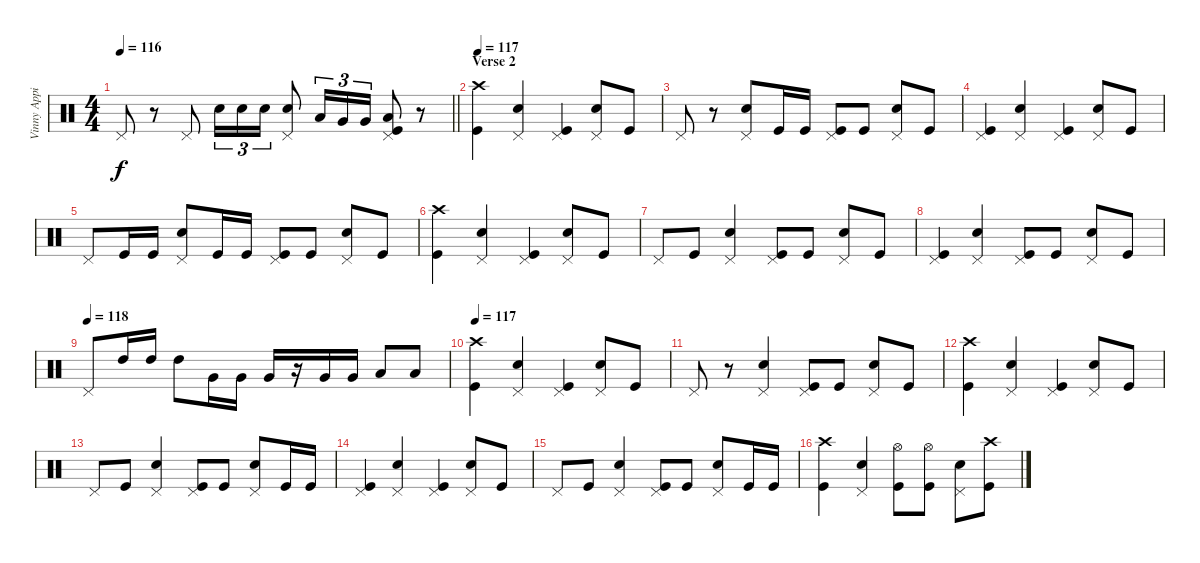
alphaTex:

\track ("Vinny Appice" "Vinny Appi") {instrument percussion}
\staff {score}
\articulation defaults
\ts (4 4)
\tempo 116
\clef neutral
\barLineRight lightlight
\ks c "Pedal Hi-Hat (hit)".8{dy f}
r.8 "Pedal Hi-Hat (hit)".8 "Snare (hit) 2".16{tu (3 2)} "Snare (hit) 2".16{tu (3 2)} "Snare (hit) 2".16{tu (3 2)} ("Pedal Hi-Hat (hit)" "Snare (hit) 2").8 "Low Tom (hit)".16{tu (3 2)} "Very Low Tom (hit)".16{tu (3 2)} "Very Low Tom (hit)".16{tu (3 2)} ("Pedal Hi-Hat (hit)" "Low Floor Tom (hit)" "Kick (hit)").8 r.8 |
\section ("" "Verse 2")
\tempo 117
("Kick (hit)" "Crash high (hit)").4 ("Pedal Hi-Hat (hit)" "Snare (hit) 2").4 ("Pedal Hi-Hat (hit)" "Kick (hit)").4 ("Pedal Hi-Hat (hit)" "Snare (hit) 2").8 "Kick (hit)".8 |
"Pedal Hi-Hat (hit)".8 r.8 ("Pedal Hi-Hat (hit)" "Snare (hit) 2").8 "Kick (hit)".16 "Kick (hit)".16 ("Pedal Hi-Hat (hit)" "Kick (hit)").8 "Kick (hit)".8 ("Pedal Hi-Hat (hit)" "Snare (hit) 2").8 "Kick (hit)".8 |
("Pedal Hi-Hat (hit)" "Kick (hit)").4 ("Pedal Hi-Hat (hit)" "Snare (hit) 2").4 ("Pedal Hi-Hat (hit)" "Kick (hit)").4 ("Pedal Hi-Hat (hit)" "Snare (hit) 2").8 "Kick (hit)".8 |
"Pedal Hi-Hat (hit)".8 "Kick (hit)".16 "Kick (hit)".16 ("Pedal Hi-Hat (hit)" "Snare (hit) 2").8 "Kick (hit)".16 "Kick (hit)".16 ("Pedal Hi-Hat (hit)" "Kick (hit)").8 "Kick (hit)".8 ("Pedal Hi-Hat (hit)" "Snare (hit) 2").8 "Kick (hit)".8 |
("Kick (hit)" "Crash high (hit)").4 ("Pedal Hi-Hat (hit)" "Snare (hit) 2").4 ("Pedal Hi-Hat (hit)" "Kick (hit)").4 ("Pedal Hi-Hat (hit)" "Snare (hit) 2").8 "Kick (hit)".8 |
"Pedal Hi-Hat (hit)".8 "Kick (hit)".8 ("Pedal Hi-Hat (hit)" "Snare (hit) 2").4 ("Pedal Hi-Hat (hit)" "Kick (hit)").8 "Kick (hit)".8 ("Pedal Hi-Hat (hit)" "Snare (hit) 2").8 "Kick (hit)".8 |
("Pedal Hi-Hat (hit)" "Kick (hit)").4 ("Pedal Hi-Hat (hit)" "Snare (hit) 2").4 ("Pedal Hi-Hat (hit)" "Kick (hit)").8 "Kick (hit)".8 ("Pedal Hi-Hat (hit)" "Snare (hit) 2").8 "Kick (hit)".8 |
\tempo (118)
"Pedal Hi-Hat (hit)".8 "High Tom (hit)".16 "High Tom (hit)".16 "High Tom (hit)".8 "Very Low Tom (hit)".16 "Very Low Tom (hit)".16 "Very Low Tom (hit)".16 r.16 "Very Low Tom (hit)".16 "Very Low Tom (hit)".16 "Low Tom (hit)".8 "Low Floor Tom (hit)".8 |
\tempo 117
("Kick (hit)" "Crash high (hit)").4 ("Pedal Hi-Hat (hit)" "Snare (hit) 2").4 ("Pedal Hi-Hat (hit)" "Kick (hit)").4 ("Pedal Hi-Hat (hit)" "Snare (hit) 2").8 "Kick (hit)".8 |
"Pedal Hi-Hat (hit)".8 r.8 ("Pedal Hi-Hat (hit)" "Snare (hit) 2").4 ("Pedal Hi-Hat (hit)" "Kick (hit)").8 "Kick (hit)".8 ("Pedal Hi-Hat (hit)" "Snare (hit) 2").8 "Kick (hit)".8 |
("Kick (hit)" "Crash high (hit)").4 ("Pedal Hi-Hat (hit)" "Snare (hit) 2").4 ("Pedal Hi-Hat (hit)" "Kick (hit)").4 ("Pedal Hi-Hat (hit)" "Snare (hit) 2").8 "Kick (hit)".8 |
"Pedal Hi-Hat (hit)".8 "Kick (hit)".8 ("Pedal Hi-Hat (hit)" "Snare (hit) 2").4 ("Pedal Hi-Hat (hit)" "Kick (hit)").8 "Kick (hit)".8 ("Pedal Hi-Hat (hit)" "Snare (hit) 2").8 "Kick (hit)".16 "Kick (hit)".16 |
("Pedal Hi-Hat (hit)" "Kick (hit)").4 ("Pedal Hi-Hat (hit)" "Snare (hit) 2").4 ("Pedal Hi-Hat (hit)" "Kick (hit)").4 ("Pedal Hi-Hat (hit)" "Snare (hit) 2").8 "Kick (hit)".8 |
"Pedal Hi-Hat (hit)".8 "Kick (hit)".8 ("Pedal Hi-Hat (hit)" "Snare (hit) 2").4 ("Pedal Hi-Hat (hit)" "Kick (hit)").8 "Kick (hit)".8 ("Pedal Hi-Hat (hit)" "Snare (hit) 2").8 "Kick (hit)".16 "Kick (hit)".16 |
("Kick (hit)" "Crash high (hit)").4 ("Pedal Hi-Hat (hit)" "Snare (hit) 2").4 ("Hi-Hat (open)" "Kick (hit)").8 ("Hi-Hat (open)" "Kick (hit)").8 ("Pedal Hi-Hat (hit)" "Snare (hit) 2").8 ("Kick (hit)" "Crash high (hit)").8
